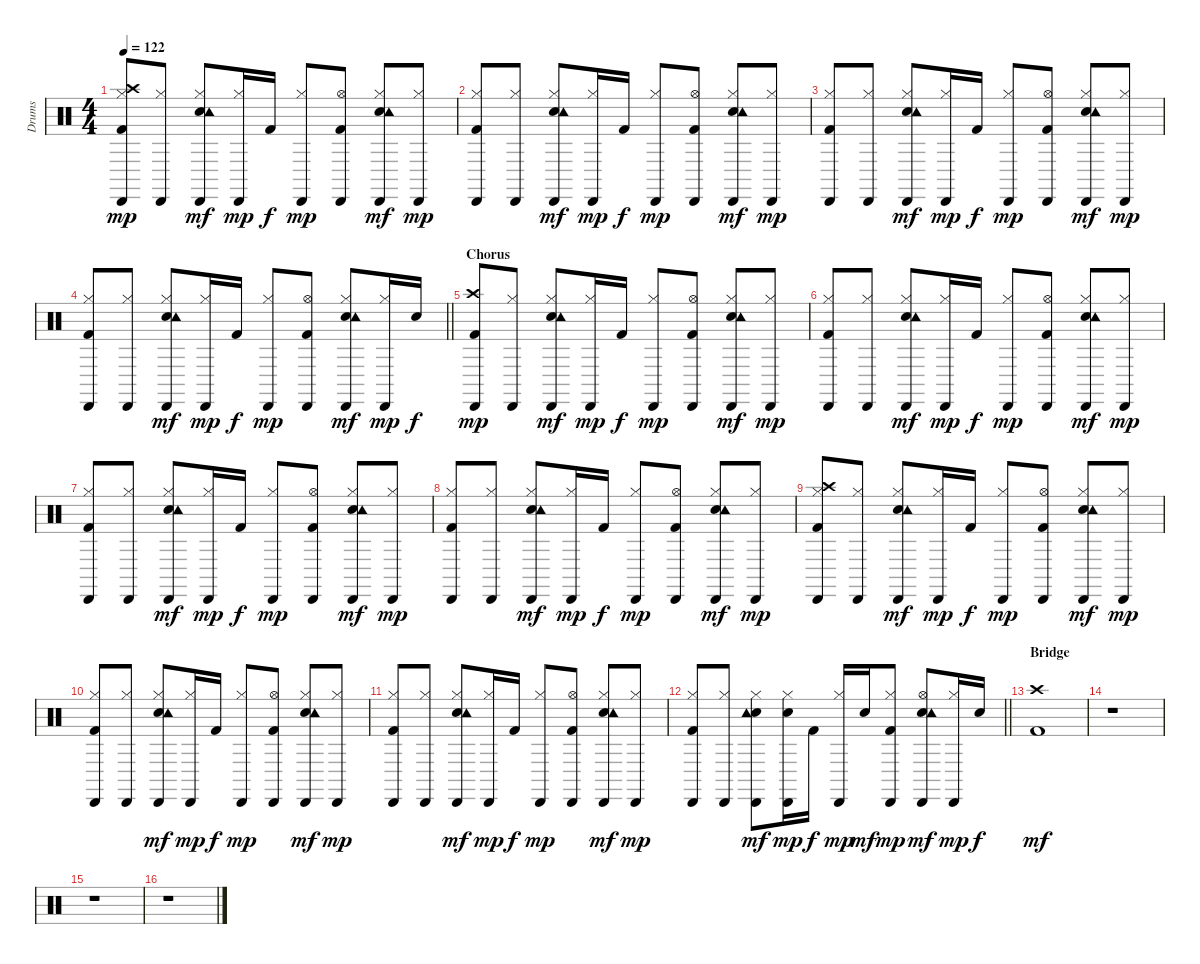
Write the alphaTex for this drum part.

\track ("Drums" "Drums") {instrument percussion}
\staff {score}
\articulation defaults
\ts (4 4)
\tempo 122
\clef neutral
\ks c
("Hi-Hat (closed)" "Crash high (hit)" "Cabasa (hit)" "Kick (hit) 2").8{dy mp} ("Hi-Hat (closed)" "Cabasa (hit)").8 ("Hi-Hat (closed)" "Electric Snare (hit)" "Cabasa (hit)" "Tambourine (hit)").8{dy mf} ("Hi-Hat (closed)" "Cabasa (hit)").16{dy mp} "Kick (hit) 2".16{dy f} ("Hi-Hat (closed)" "Cabasa (hit)").8{dy mp} ("Hi-Hat (open)" "Cabasa (hit)" "Kick (hit) 2").8 ("Hi-Hat (closed)" "Electric Snare (hit)" "Cabasa (hit)" "Tambourine (hit)").8{dy mf} ("Hi-Hat (closed)" "Cabasa (hit)").8{dy mp} |
("Hi-Hat (closed)" "Cabasa (hit)" "Kick (hit) 2").8 ("Hi-Hat (closed)" "Cabasa (hit)").8 ("Hi-Hat (closed)" "Electric Snare (hit)" "Cabasa (hit)" "Tambourine (hit)").8{dy mf} ("Hi-Hat (closed)" "Cabasa (hit)").16{dy mp} "Kick (hit) 2".16{dy f} ("Hi-Hat (closed)" "Cabasa (hit)").8{dy mp} ("Hi-Hat (open)" "Cabasa (hit)" "Kick (hit) 2").8 ("Hi-Hat (closed)" "Electric Snare (hit)" "Cabasa (hit)" "Tambourine (hit)").8{dy mf} ("Hi-Hat (closed)" "Cabasa (hit)").8{dy mp} |
("Hi-Hat (closed)" "Cabasa (hit)" "Kick (hit) 2").8 ("Hi-Hat (closed)" "Cabasa (hit)").8 ("Hi-Hat (closed)" "Electric Snare (hit)" "Cabasa (hit)" "Tambourine (hit)").8{dy mf} ("Hi-Hat (closed)" "Cabasa (hit)").16{dy mp} "Kick (hit) 2".16{dy f} ("Hi-Hat (closed)" "Cabasa (hit)").8{dy mp} ("Hi-Hat (open)" "Cabasa (hit)" "Kick (hit) 2").8 ("Hi-Hat (closed)" "Electric Snare (hit)" "Cabasa (hit)" "Tambourine (hit)").8{dy mf} ("Hi-Hat (closed)" "Cabasa (hit)").8{dy mp} |
\barLineRight lightlight
("Hi-Hat (closed)" "Cabasa (hit)" "Kick (hit) 2").8 ("Hi-Hat (closed)" "Cabasa (hit)").8 ("Hi-Hat (closed)" "Electric Snare (hit)" "Cabasa (hit)" "Tambourine (hit)").8{dy mf} ("Hi-Hat (closed)" "Cabasa (hit)").16{dy mp} "Kick (hit) 2".16{dy f} ("Hi-Hat (closed)" "Cabasa (hit)").8{dy mp} ("Hi-Hat (open)" "Cabasa (hit)" "Kick (hit) 2").8 ("Hi-Hat (closed)" "Electric Snare (hit)" "Cabasa (hit)" "Tambourine (hit)").8{dy mf} ("Hi-Hat (closed)" "Cabasa (hit)").16{dy mp} "Electric Snare (hit)".16{dy f} |
\section ("" "Chorus")
("Crash high (hit)" "Cabasa (hit)" "Kick (hit) 2").8{dy mp} ("Hi-Hat (closed)" "Cabasa (hit)").8 ("Hi-Hat (closed)" "Electric Snare (hit)" "Cabasa (hit)" "Tambourine (hit)").8{dy mf} ("Hi-Hat (closed)" "Cabasa (hit)").16{dy mp} "Kick (hit) 2".16{dy f} ("Hi-Hat (closed)" "Cabasa (hit)").8{dy mp} ("Hi-Hat (open)" "Cabasa (hit)" "Kick (hit) 2").8 ("Hi-Hat (closed)" "Electric Snare (hit)" "Cabasa (hit)" "Tambourine (hit)").8{dy mf} ("Hi-Hat (closed)" "Cabasa (hit)").8{dy mp} |
("Hi-Hat (closed)" "Cabasa (hit)" "Kick (hit) 2").8 ("Hi-Hat (closed)" "Cabasa (hit)").8 ("Hi-Hat (closed)" "Electric Snare (hit)" "Cabasa (hit)" "Tambourine (hit)").8{dy mf} ("Hi-Hat (closed)" "Cabasa (hit)").16{dy mp} "Kick (hit) 2".16{dy f} ("Hi-Hat (closed)" "Cabasa (hit)").8{dy mp} ("Hi-Hat (open)" "Cabasa (hit)" "Kick (hit) 2").8 ("Hi-Hat (closed)" "Electric Snare (hit)" "Cabasa (hit)" "Tambourine (hit)").8{dy mf} ("Hi-Hat (closed)" "Cabasa (hit)").8{dy mp} |
("Hi-Hat (closed)" "Cabasa (hit)" "Kick (hit) 2").8 ("Hi-Hat (closed)" "Cabasa (hit)").8 ("Hi-Hat (closed)" "Electric Snare (hit)" "Cabasa (hit)" "Tambourine (hit)").8{dy mf} ("Hi-Hat (closed)" "Cabasa (hit)").16{dy mp} "Kick (hit) 2".16{dy f} ("Hi-Hat (closed)" "Cabasa (hit)").8{dy mp} ("Hi-Hat (open)" "Cabasa (hit)" "Kick (hit) 2").8 ("Hi-Hat (closed)" "Electric Snare (hit)" "Cabasa (hit)" "Tambourine (hit)").8{dy mf} ("Hi-Hat (closed)" "Cabasa (hit)").8{dy mp} |
("Hi-Hat (closed)" "Cabasa (hit)" "Kick (hit) 2").8 ("Hi-Hat (closed)" "Cabasa (hit)").8 ("Hi-Hat (closed)" "Electric Snare (hit)" "Cabasa (hit)" "Tambourine (hit)").8{dy mf} ("Hi-Hat (closed)" "Cabasa (hit)").16{dy mp} "Kick (hit) 2".16{dy f} ("Hi-Hat (closed)" "Cabasa (hit)").8{dy mp} ("Hi-Hat (open)" "Cabasa (hit)" "Kick (hit) 2").8 ("Hi-Hat (closed)" "Electric Snare (hit)" "Cabasa (hit)" "Tambourine (hit)").8{dy mf} ("Hi-Hat (closed)" "Cabasa (hit)").8{dy mp} |
("Hi-Hat (closed)" "Crash high (hit)" "Cabasa (hit)" "Kick (hit) 2").8 ("Hi-Hat (closed)" "Cabasa (hit)").8 ("Hi-Hat (closed)" "Electric Snare (hit)" "Cabasa (hit)" "Tambourine (hit)").8{dy mf} ("Hi-Hat (closed)" "Cabasa (hit)").16{dy mp} "Kick (hit) 2".16{dy f} ("Hi-Hat (closed)" "Cabasa (hit)").8{dy mp} ("Hi-Hat (open)" "Cabasa (hit)" "Kick (hit) 2").8 ("Hi-Hat (closed)" "Electric Snare (hit)" "Cabasa (hit)" "Tambourine (hit)").8{dy mf} ("Hi-Hat (closed)" "Cabasa (hit)").8{dy mp} |
("Hi-Hat (closed)" "Cabasa (hit)" "Kick (hit) 2").8 ("Hi-Hat (closed)" "Cabasa (hit)").8 ("Hi-Hat (closed)" "Electric Snare (hit)" "Cabasa (hit)" "Tambourine (hit)").8{dy mf} ("Hi-Hat (closed)" "Cabasa (hit)").16{dy mp} "Kick (hit) 2".16{dy f} ("Hi-Hat (closed)" "Cabasa (hit)").8{dy mp} ("Hi-Hat (open)" "Cabasa (hit)" "Kick (hit) 2").8 ("Hi-Hat (closed)" "Electric Snare (hit)" "Cabasa (hit)" "Tambourine (hit)").8{dy mf} ("Hi-Hat (closed)" "Cabasa (hit)").8{dy mp} |
("Hi-Hat (closed)" "Cabasa (hit)" "Kick (hit) 2").8 ("Hi-Hat (closed)" "Cabasa (hit)").8 ("Hi-Hat (closed)" "Electric Snare (hit)" "Cabasa (hit)" "Tambourine (hit)").8{dy mf} ("Hi-Hat (closed)" "Cabasa (hit)").16{dy mp} "Kick (hit) 2".16{dy f} ("Hi-Hat (closed)" "Cabasa (hit)").8{dy mp} ("Hi-Hat (open)" "Cabasa (hit)" "Kick (hit) 2").8 ("Hi-Hat (closed)" "Electric Snare (hit)" "Cabasa (hit)" "Tambourine (hit)").8{dy mf} ("Hi-Hat (closed)" "Cabasa (hit)").8{dy mp} |
\barLineRight lightlight
("Hi-Hat (closed)" "Cabasa (hit)" "Kick (hit) 2").8 ("Hi-Hat (closed)" "Cabasa (hit)").8 ("Hi-Hat (closed)" "Electric Snare (hit)" "Cabasa (hit)" "Tambourine (hit)").8{dy mf} ("Hi-Hat (closed)" "Electric Snare (hit)" "Cabasa (hit)").16{dy mp} "Kick (hit) 2".16{dy f} ("Hi-Hat (closed)" "Cabasa (hit)").16{dy mp} "Electric Snare (hit)".16{dy mf} ("Hi-Hat (closed)" "Cabasa (hit)" "Kick (hit) 2").8{dy mp} ("Hi-Hat (open)" "Electric Snare (hit)" "Cabasa (hit)" "Tambourine (hit)").8{dy mf} ("Hi-Hat (closed)" "Cabasa (hit)").16{dy mp} "Electric Snare (hit)".16{dy f} |
\section ("" "Bridge")
("Crash high (hit)" "Kick (hit) 2").1{dy mf} |
r.1 |
r.1 |
r.1
